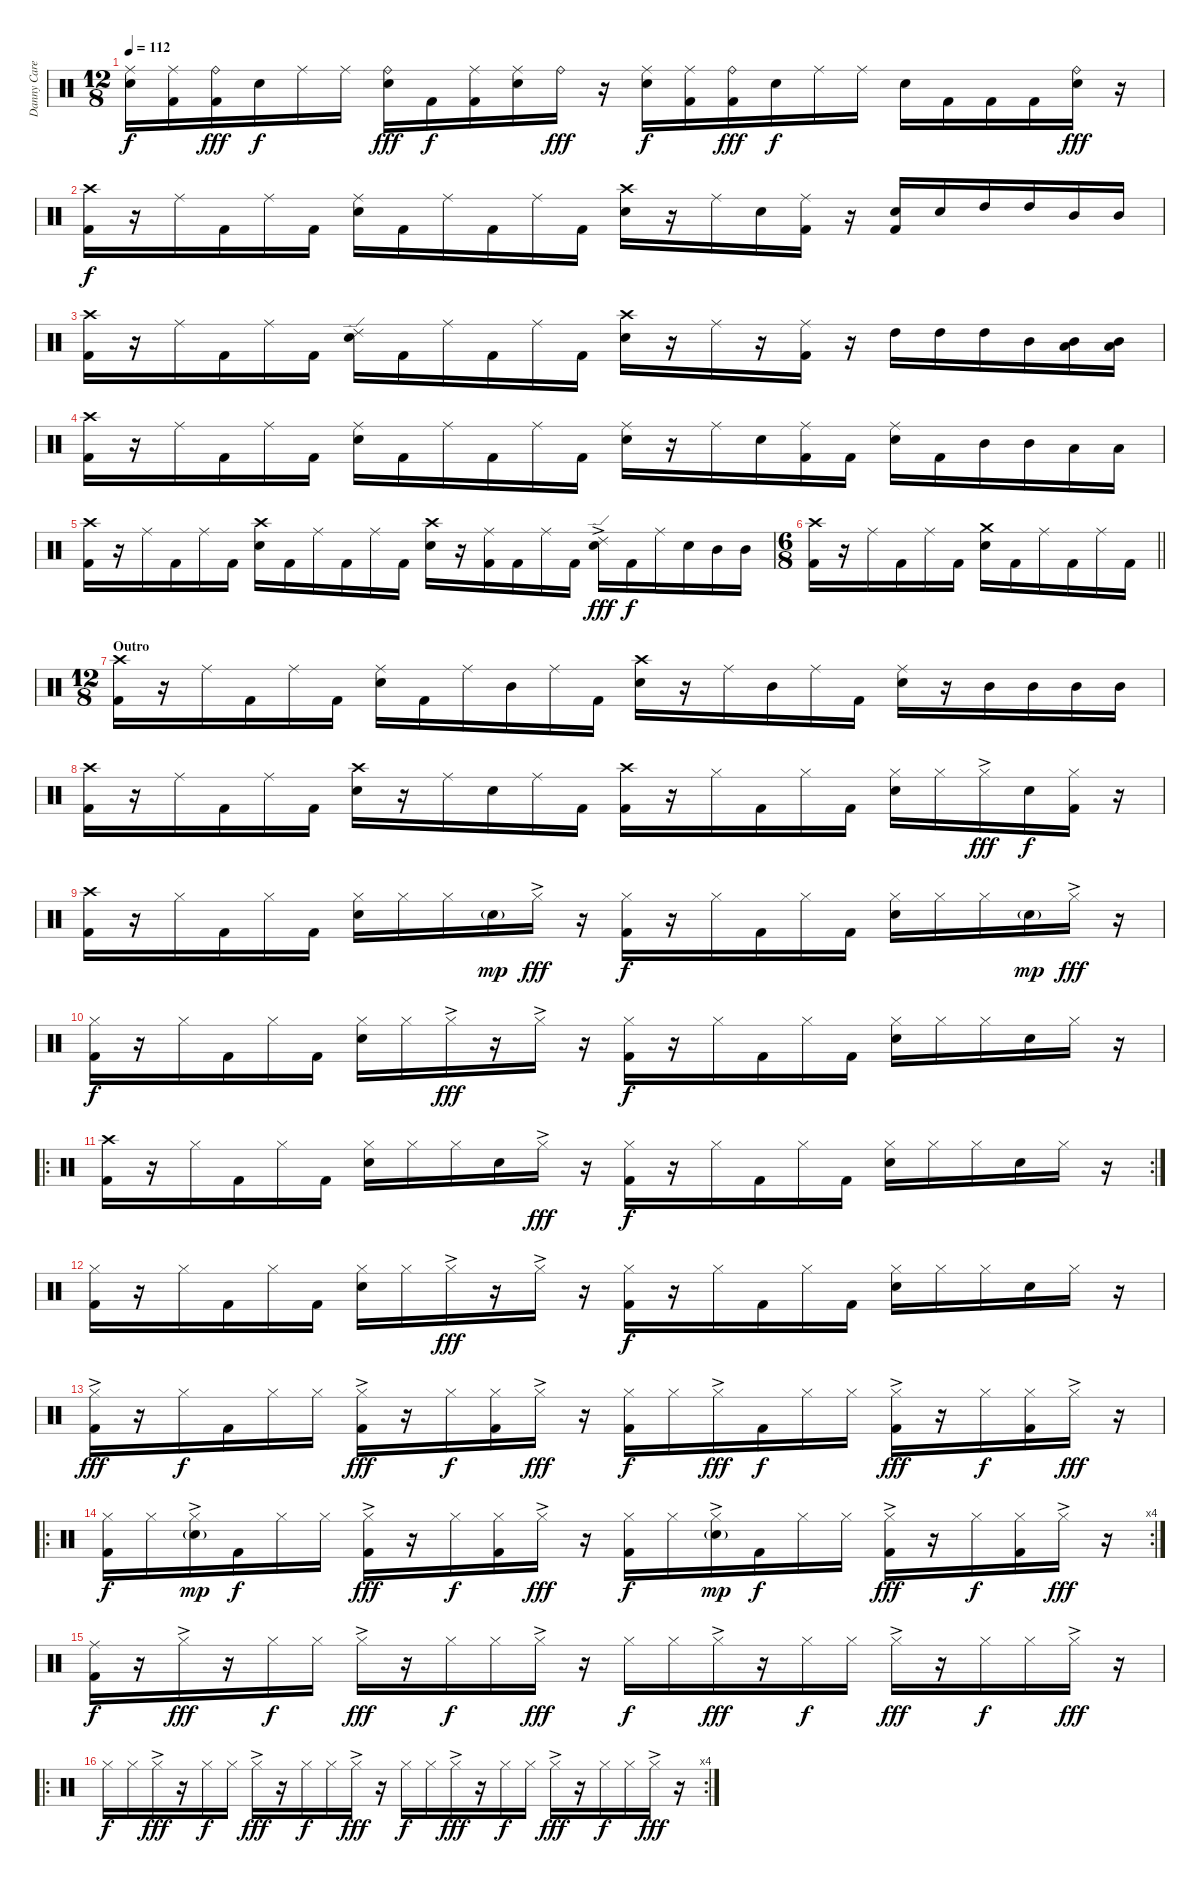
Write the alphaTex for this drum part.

\track ("Danny Carey" "Danny Care") {instrument percussion}
\staff {score}
\articulation defaults
\ts (12 8)
\tempo 112
\clef neutral
\ks c
("Ride (middle)" "Electric Snare (hit)").16{dy f} ("Ride (middle)" "Kick (hit) 2").16 ("Ride (bell)" "Kick (hit) 2").16{dy fff} "Electric Snare (hit)".16{dy f} "Ride (middle)".16 "Ride (middle)".16 ("Ride (bell)" "Electric Snare (hit)").16{dy fff} "Kick (hit) 2".16{dy f} ("Ride (middle)" "Kick (hit) 2").16 ("Ride (middle)" "Electric Snare (hit)").16 "Ride (bell)".16{dy fff} r.16 ("Ride (middle)" "Electric Snare (hit)").16{dy f} ("Ride (middle)" "Kick (hit) 2").16 ("Ride (bell)" "Kick (hit) 2").16{dy fff} "Electric Snare (hit)".16{dy f} "Ride (middle)".16 "Ride (middle)".16 "Electric Snare (hit)".16 "Kick (hit) 2".16 "Kick (hit) 2".16 "Kick (hit) 2".16 ("Ride (bell)" "Electric Snare (hit)").16{dy fff} r.16 |
("Crash high (hit)" "Kick (hit) 2").16{dy f} r.16 "Ride (middle)".16 "Kick (hit) 2".16 "Ride (middle)".16 "Kick (hit) 2".16 ("Ride (middle)" "Electric Snare (hit)").16 "Kick (hit) 2".16 "Ride (middle)".16 "Kick (hit) 2".16 "Ride (middle)".16 "Kick (hit) 2".16 ("Crash high (hit)" "Electric Snare (hit)").16 r.16 "Ride (middle)".16 "Electric Snare (hit)".16 ("Ride (middle)" "Kick (hit) 2").16 r.16 ("Electric Snare (hit)" "Kick (hit) 2").16 "Electric Snare (hit)".16 "High Tom (hit)".16 "High Tom (hit)".16 "Mid Tom (hit)".16 "Mid Tom (hit)".16 |
("Crash high (hit)" "Kick (hit) 2").16 r.16 "Ride (middle)".16 "Kick (hit) 2".16 "Ride (middle)".16 "Kick (hit) 2".16 ("Ride (edge) 2" "Electric Snare (hit)").16 "Kick (hit) 2".16 "Ride (middle)".16 "Kick (hit) 2".16 "Ride (middle)".16 "Kick (hit) 2".16 ("Crash high (hit)" "Electric Snare (hit)").16 r.16 "Ride (middle)".16 r.16 ("Ride (middle)" "Kick (hit) 2").16 r.16 "High Tom (hit)".16 "High Tom (hit)".16 "High Tom (hit)".16 "Mid Tom (hit)".16 ("Low Floor Tom (hit)" "Mid Tom (hit)").16 ("Low Floor Tom (hit)" "Mid Tom (hit)").16 |
("Crash high (hit)" "Kick (hit) 2").16 r.16 "Ride (middle)".16 "Kick (hit) 2".16 "Ride (middle)".16 "Kick (hit) 2".16 ("Ride (middle)" "Electric Snare (hit)").16 "Kick (hit) 2".16 "Ride (middle)".16 "Kick (hit) 2".16 "Ride (middle)".16 "Kick (hit) 2".16 ("Ride (middle)" "Electric Snare (hit)").16 r.16 "Ride (middle)".16 "Electric Snare (hit)".16 ("Ride (middle)" "Kick (hit) 2").16 "Kick (hit) 2".16 ("Ride (middle)" "Electric Snare (hit)").16 "Kick (hit) 2".16 "Mid Tom (hit)".16 "Mid Tom (hit)".16 "Low Tom (hit)".16 "Low Tom (hit)".16 |
("Crash high (hit)" "Kick (hit) 2").16 r.16 "Ride (middle)".16 "Kick (hit) 2".16 "Ride (middle)".16 "Kick (hit) 2".16 ("Crash high (hit)" "Electric Snare (hit)").16 "Kick (hit) 2".16 "Ride (middle)".16 "Kick (hit) 2".16 "Ride (middle)".16 "Kick (hit) 2".16 ("Crash high (hit)" "Electric Snare (hit)").16 r.16 ("Ride (middle)" "Kick (hit) 2").16 "Kick (hit) 2".16 "Ride (middle)".16 "Kick (hit) 2".16 ("Ride (edge) 2"{ac} "Electric Snare (hit)").16{dy fff} "Kick (hit) 2".16{dy f} "Ride (middle)".16 "Electric Snare (hit)".16 "Mid Tom (hit)".16 "Mid Tom (hit)".16 |
\ts (6 8)
\barLineRight lightlight
("Crash high (hit)" "Kick (hit) 2").16 r.16 "Ride (middle)".16 "Kick (hit) 2".16 "Ride (middle)".16 "Kick (hit) 2".16 ("Crash medium (hit)" "Electric Snare (hit)").16 "Kick (hit) 2".16 "Ride (middle)".16 "Kick (hit) 2".16 "Ride (middle)".16 "Kick (hit) 2".16 |
\ts (12 8)
\section ("" "Outro")
("Crash high (hit)" "Kick (hit) 2").16 r.16 "Ride (middle)".16 "Kick (hit) 2".16 "Ride (middle)".16 "Kick (hit) 2".16 ("Ride (middle)" "Electric Snare (hit)").16 "Kick (hit) 2".16 "Ride (middle)".16 "Mid Tom (hit)".16 "Ride (middle)".16 "Kick (hit) 2".16 ("Crash high (hit)" "Electric Snare (hit)").16 r.16 "Ride (middle)".16 "Mid Tom (hit)".16 "Ride (middle)".16 "Kick (hit) 2".16 ("Ride (middle)" "Electric Snare (hit)").16 r.16 "Mid Tom (hit)".16 "Mid Tom (hit)".16 "Mid Tom (hit)".16 "Mid Tom (hit)".16 |
("Crash high (hit)" "Kick (hit) 2").16 r.16 "Ride (middle)".16 "Kick (hit) 2".16 "Ride (middle)".16 "Kick (hit) 2".16 ("Crash high (hit)" "Electric Snare (hit)").16 r.16 "Ride (middle)".16 "Electric Snare (hit)".16 "Ride (middle)".16 "Kick (hit) 2".16 ("Crash high (hit)" "Kick (hit) 2").16 r.16 "Hi-Hat (closed)".16 "Kick (hit) 2".16 "Hi-Hat (closed)".16 "Kick (hit) 2".16 ("Hi-Hat (closed)" "Electric Snare (hit)").16 "Hi-Hat (closed)".16 "Hi-Hat (closed)"{ac}.16{dy fff} "Electric Snare (hit)".16{dy f} ("Hi-Hat (closed)" "Kick (hit) 2").16 r.16 |
("Crash high (hit)" "Kick (hit) 2").16 r.16 "Hi-Hat (closed)".16 "Kick (hit) 2".16 "Hi-Hat (closed)".16 "Kick (hit) 2".16 ("Hi-Hat (closed)" "Electric Snare (hit)").16 "Hi-Hat (closed)".16 "Hi-Hat (closed)".16 "Electric Snare (hit)"{g}.16{dy mp} "Hi-Hat (closed)"{ac}.16{dy fff} r.16 ("Hi-Hat (closed)" "Kick (hit) 2").16{dy f} r.16 "Hi-Hat (closed)".16 "Kick (hit) 2".16 "Hi-Hat (closed)".16 "Kick (hit) 2".16 ("Hi-Hat (closed)" "Electric Snare (hit)").16 "Hi-Hat (closed)".16 "Hi-Hat (closed)".16 "Electric Snare (hit)"{g}.16{dy mp} "Hi-Hat (closed)"{ac}.16{dy fff} r.16 |
("Hi-Hat (closed)" "Kick (hit) 2").16{dy f} r.16 "Hi-Hat (closed)".16 "Kick (hit) 2".16 "Hi-Hat (closed)".16 "Kick (hit) 2".16 ("Hi-Hat (closed)" "Electric Snare (hit)").16 "Hi-Hat (closed)".16 "Hi-Hat (closed)"{ac}.16{dy fff} r.16 "Hi-Hat (closed)"{ac}.16 r.16 ("Hi-Hat (closed)" "Kick (hit) 2").16{dy f} r.16 "Hi-Hat (closed)".16 "Kick (hit) 2".16 "Hi-Hat (closed)".16 "Kick (hit) 2".16 ("Hi-Hat (closed)" "Electric Snare (hit)").16 "Hi-Hat (closed)".16 "Hi-Hat (closed)".16 "Electric Snare (hit)".16 "Hi-Hat (closed)".16 r.16 |
\ro
\rc 2
("Crash high (hit)" "Kick (hit) 2").16 r.16 "Hi-Hat (closed)".16 "Kick (hit) 2".16 "Hi-Hat (closed)".16 "Kick (hit) 2".16 ("Hi-Hat (closed)" "Electric Snare (hit)").16 "Hi-Hat (closed)".16 "Hi-Hat (closed)".16 "Electric Snare (hit)".16 "Hi-Hat (closed)"{ac}.16{dy fff} r.16 ("Hi-Hat (closed)" "Kick (hit) 2").16{dy f} r.16 "Hi-Hat (closed)".16 "Kick (hit) 2".16 "Hi-Hat (closed)".16 "Kick (hit) 2".16 ("Hi-Hat (closed)" "Electric Snare (hit)").16 "Hi-Hat (closed)".16 "Hi-Hat (closed)".16 "Electric Snare (hit)".16 "Hi-Hat (closed)".16 r.16 |
("Hi-Hat (closed)" "Kick (hit) 2").16 r.16 "Hi-Hat (closed)".16 "Kick (hit) 2".16 "Hi-Hat (closed)".16 "Kick (hit) 2".16 ("Hi-Hat (closed)" "Electric Snare (hit)").16 "Hi-Hat (closed)".16 "Hi-Hat (closed)"{ac}.16{dy fff} r.16 "Hi-Hat (closed)"{ac}.16 r.16 ("Hi-Hat (closed)" "Kick (hit) 2").16{dy f} r.16 "Hi-Hat (closed)".16 "Kick (hit) 2".16 "Hi-Hat (closed)".16 "Kick (hit) 2".16 ("Hi-Hat (closed)" "Electric Snare (hit)").16 "Hi-Hat (closed)".16 "Hi-Hat (closed)".16 "Electric Snare (hit)".16 "Hi-Hat (closed)".16 r.16 |
("Hi-Hat (closed)"{ac} "Kick (hit) 2").16{dy fff volume 13} r.16 "Hi-Hat (closed)".16{dy f} "Kick (hit) 2".16 "Hi-Hat (closed)".16 "Hi-Hat (closed)".16 ("Hi-Hat (closed)"{ac} "Kick (hit) 2").16{dy fff} r.16 "Hi-Hat (closed)".16{dy f} ("Hi-Hat (closed)" "Kick (hit) 2").16 "Hi-Hat (closed)"{ac}.16{dy fff} r.16 ("Hi-Hat (closed)" "Kick (hit) 2").16{dy f} "Hi-Hat (closed)".16 "Hi-Hat (closed)"{ac}.16{dy fff} "Kick (hit) 2".16{dy f} "Hi-Hat (closed)".16 "Hi-Hat (closed)".16 ("Hi-Hat (closed)"{ac} "Kick (hit) 2").16{dy fff} r.16 "Hi-Hat (closed)".16{dy f} ("Hi-Hat (closed)" "Kick (hit) 2").16 "Hi-Hat (closed)"{ac}.16{dy fff} r.16 |
\ro
\rc 4
("Hi-Hat (closed)" "Kick (hit) 2").16{dy f} "Hi-Hat (closed)".16 ("Hi-Hat (closed)"{ac} "Electric Snare (hit)"{g}).16{dy mp} "Kick (hit) 2".16{dy f} "Hi-Hat (closed)".16 "Hi-Hat (closed)".16 ("Hi-Hat (closed)"{ac} "Kick (hit) 2").16{dy fff} r.16 "Hi-Hat (closed)".16{dy f} ("Hi-Hat (closed)" "Kick (hit) 2").16 "Hi-Hat (closed)"{ac}.16{dy fff} r.16 ("Hi-Hat (closed)" "Kick (hit) 2").16{dy f} "Hi-Hat (closed)".16 ("Hi-Hat (closed)"{ac} "Electric Snare (hit)"{g}).16{dy mp} "Kick (hit) 2".16{dy f} "Hi-Hat (closed)".16 "Hi-Hat (closed)".16 ("Hi-Hat (closed)"{ac} "Kick (hit) 2").16{dy fff} r.16 "Hi-Hat (closed)".16{dy f} ("Hi-Hat (closed)" "Kick (hit) 2").16 "Hi-Hat (closed)"{ac}.16{dy fff} r.16 |
("Ride (middle)" "Kick (hit) 2").16{dy f} r.16 "Hi-Hat (closed)"{ac}.16{dy fff} r.16 "Hi-Hat (closed)".16{dy f} "Hi-Hat (closed)".16 "Hi-Hat (closed)"{ac}.16{dy fff} r.16 "Hi-Hat (closed)".16{dy f} "Hi-Hat (closed)".16 "Hi-Hat (closed)"{ac}.16{dy fff} r.16 "Hi-Hat (closed)".16{dy f} "Hi-Hat (closed)".16 "Hi-Hat (closed)"{ac}.16{dy fff} r.16 "Hi-Hat (closed)".16{dy f} "Hi-Hat (closed)".16 "Hi-Hat (closed)"{ac}.16{dy fff} r.16 "Hi-Hat (closed)".16{dy f} "Hi-Hat (closed)".16 "Hi-Hat (closed)"{ac}.16{dy fff} r.16 |
\ro
\rc 4 "Hi-Hat (closed)".16{dy f} "Hi-Hat (closed)".16 "Hi-Hat (closed)"{ac}.16{dy fff}
r.16 "Hi-Hat (closed)".16{dy f} "Hi-Hat (closed)".16 "Hi-Hat (closed)"{ac}.16{dy fff} r.16 "Hi-Hat (closed)".16{dy f} "Hi-Hat (closed)".16 "Hi-Hat (closed)"{ac}.16{dy fff} r.16 "Hi-Hat (closed)".16{dy f} "Hi-Hat (closed)".16 "Hi-Hat (closed)"{ac}.16{dy fff} r.16 "Hi-Hat (closed)".16{dy f} "Hi-Hat (closed)".16 "Hi-Hat (closed)"{ac}.16{dy fff} r.16 "Hi-Hat (closed)".16{dy f} "Hi-Hat (closed)".16 "Hi-Hat (closed)"{ac}.16{dy fff} r.16
